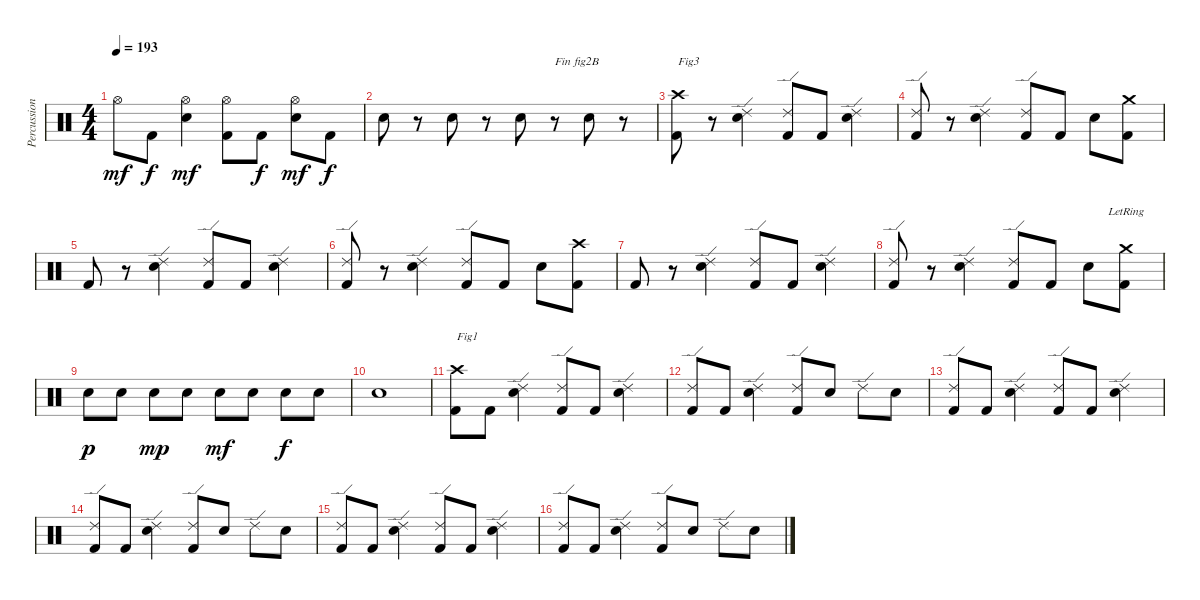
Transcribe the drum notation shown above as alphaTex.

\track ("Percussions" "Percussion") {instrument percussion}
\staff {score}
\articulation defaults
\ts (4 4)
\tempo 193
\clef neutral
\ks c "Hi-Hat (open)".8{dy mf} "Kick (hit) 2".8{dy f}
("Electric Snare (hit)" "Hi-Hat (open)").4{dy mf} ("Kick (hit) 2" "Hi-Hat (open)").8 "Kick (hit) 2".8{dy f} ("Electric Snare (hit)" "Hi-Hat (open)").8{dy mf} "Kick (hit) 2".8{dy f} |
"Electric Snare (hit)".8 r.8 "Electric Snare (hit)".8 r.8 "Electric Snare (hit)".8 r.8{txt "Fin fig2B"} "Electric Snare (hit)".8 r.8 |
("Kick (hit) 2" "Crash high (hit)").8{txt "Fig3"} r.8 ("Electric Snare (hit)" "Ride (edge) 2").4 ("Kick (hit) 2" "Ride (edge) 2").8 "Kick (hit) 2".8 ("Electric Snare (hit)" "Ride (edge) 2").4 |
("Kick (hit) 2" "Ride (edge) 2").8 r.8 ("Electric Snare (hit)" "Ride (edge) 2").4 ("Kick (hit) 2" "Ride (edge) 2").8 "Kick (hit) 2".8 "Electric Snare (hit)".8 ("Kick (hit) 2" "Crash medium (hit)").8 |
"Kick (hit) 2".8 r.8 ("Electric Snare (hit)" "Ride (edge) 2").4 ("Kick (hit) 2" "Ride (edge) 2").8 "Kick (hit) 2".8 ("Electric Snare (hit)" "Ride (edge) 2").4 |
("Kick (hit) 2" "Ride (edge) 2").8 r.8 ("Electric Snare (hit)" "Ride (edge) 2").4 ("Kick (hit) 2" "Ride (edge) 2").8 "Kick (hit) 2".8 "Electric Snare (hit)".8 ("Kick (hit) 2" "Crash high (hit)").8 |
"Kick (hit) 2".8 r.8 ("Electric Snare (hit)" "Ride (edge) 2").4 ("Kick (hit) 2" "Ride (edge) 2").8 "Kick (hit) 2".8 ("Electric Snare (hit)" "Ride (edge) 2").4 |
("Kick (hit) 2" "Ride (edge) 2").8 r.8 ("Electric Snare (hit)" "Ride (edge) 2").4 ("Kick (hit) 2" "Ride (edge) 2").8 "Kick (hit) 2".8 "Electric Snare (hit)".8 ("Kick (hit) 2" "Crash medium (hit)"{lr}).8 |
"Electric Snare (hit)".8{dy p} "Electric Snare (hit)".8 "Electric Snare (hit)".8{dy mp} "Electric Snare (hit)".8 "Electric Snare (hit)".8{dy mf} "Electric Snare (hit)".8 "Electric Snare (hit)".8{dy f} "Electric Snare (hit)".8 |
"Electric Snare (hit)".1 |
("Kick (hit) 2" "Crash high (hit)").8{txt "Fig1"} "Kick (hit) 2".8 ("Electric Snare (hit)" "Ride (edge) 2").4 ("Kick (hit) 2" "Ride (edge) 2").8 "Kick (hit) 2".8 ("Electric Snare (hit)" "Ride (edge) 2").4 |
("Kick (hit) 2" "Ride (edge) 2").8 "Kick (hit) 2".8 ("Electric Snare (hit)" "Ride (edge) 2").4 ("Kick (hit) 2" "Ride (edge) 2").8 "Electric Snare (hit)".8 "Ride (edge) 2".8 "Electric Snare (hit)".8 |
("Kick (hit) 2" "Ride (edge) 2").8 "Kick (hit) 2".8 ("Electric Snare (hit)" "Ride (edge) 2").4 ("Kick (hit) 2" "Ride (edge) 2").8 "Kick (hit) 2".8 ("Electric Snare (hit)" "Ride (edge) 2").4 |
("Kick (hit) 2" "Ride (edge) 2").8 "Kick (hit) 2".8 ("Electric Snare (hit)" "Ride (edge) 2").4 ("Kick (hit) 2" "Ride (edge) 2").8 "Electric Snare (hit)".8 "Ride (edge) 2".8 "Electric Snare (hit)".8 |
("Kick (hit) 2" "Ride (edge) 2").8 "Kick (hit) 2".8 ("Electric Snare (hit)" "Ride (edge) 2").4 ("Kick (hit) 2" "Ride (edge) 2").8 "Kick (hit) 2".8 ("Electric Snare (hit)" "Ride (edge) 2").4 |
("Kick (hit) 2" "Ride (edge) 2").8 "Kick (hit) 2".8 ("Electric Snare (hit)" "Ride (edge) 2").4 ("Kick (hit) 2" "Ride (edge) 2").8 "Electric Snare (hit)".8 "Ride (edge) 2".8 "Electric Snare (hit)".8
